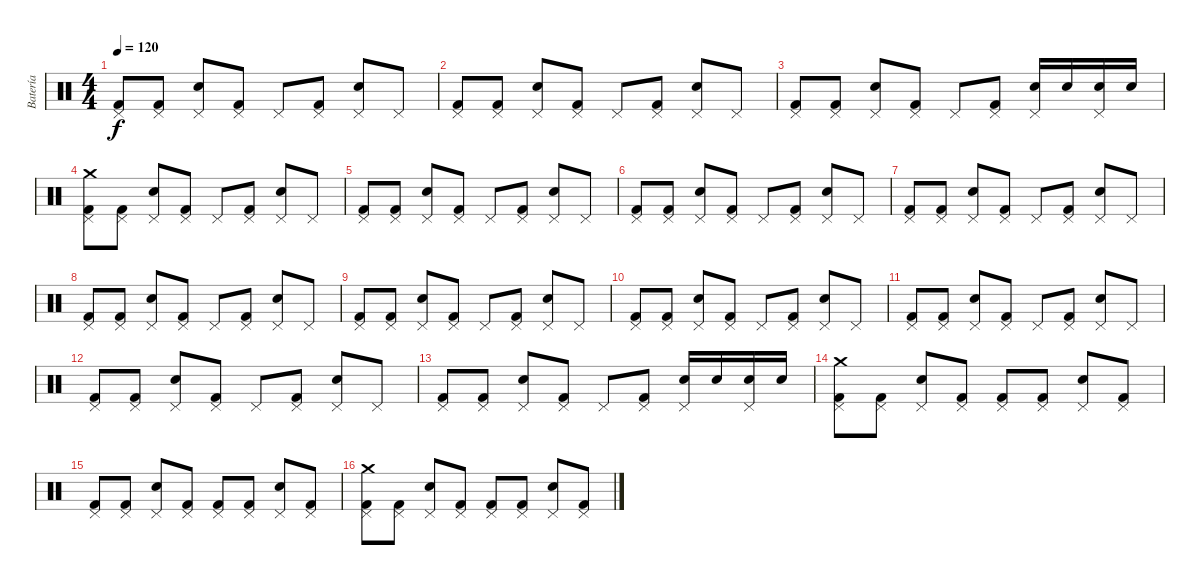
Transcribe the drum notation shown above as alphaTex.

\track ("Batería" "Batería") {instrument percussion}
\staff {score}
\articulation defaults
\ts (4 4)
\tempo 120
\clef neutral
\ks c
("Pedal Hi-Hat (hit)" "Kick (hit) 2").8{dy f} ("Pedal Hi-Hat (hit)" "Kick (hit) 2").8 ("Pedal Hi-Hat (hit)" "Snare (hit) 2").8 ("Pedal Hi-Hat (hit)" "Kick (hit) 2").8 "Pedal Hi-Hat (hit)".8 ("Pedal Hi-Hat (hit)" "Kick (hit) 2").8 ("Pedal Hi-Hat (hit)" "Snare (hit) 2").8 "Pedal Hi-Hat (hit)".8 |
("Pedal Hi-Hat (hit)" "Kick (hit) 2").8 ("Pedal Hi-Hat (hit)" "Kick (hit) 2").8 ("Pedal Hi-Hat (hit)" "Snare (hit) 2").8 ("Pedal Hi-Hat (hit)" "Kick (hit) 2").8 "Pedal Hi-Hat (hit)".8 ("Pedal Hi-Hat (hit)" "Kick (hit) 2").8 ("Pedal Hi-Hat (hit)" "Snare (hit) 2").8 "Pedal Hi-Hat (hit)".8 |
("Pedal Hi-Hat (hit)" "Kick (hit) 2").8 ("Pedal Hi-Hat (hit)" "Kick (hit) 2").8 ("Pedal Hi-Hat (hit)" "Snare (hit) 2").8 ("Pedal Hi-Hat (hit)" "Kick (hit) 2").8 "Pedal Hi-Hat (hit)".8 ("Pedal Hi-Hat (hit)" "Kick (hit) 2").8 ("Snare (hit) 2" "Pedal Hi-Hat (hit)").16 "Snare (hit) 2".16 ("Snare (hit) 2" "Pedal Hi-Hat (hit)").16 "Snare (hit) 2".16 |
("Pedal Hi-Hat (hit)" "Crash medium (hit)" "Kick (hit) 2").8 ("Pedal Hi-Hat (hit)" "Kick (hit) 2").8 ("Pedal Hi-Hat (hit)" "Snare (hit) 2").8 ("Pedal Hi-Hat (hit)" "Kick (hit) 2").8 "Pedal Hi-Hat (hit)".8 ("Pedal Hi-Hat (hit)" "Kick (hit) 2").8 ("Pedal Hi-Hat (hit)" "Snare (hit) 2").8 "Pedal Hi-Hat (hit)".8 |
("Pedal Hi-Hat (hit)" "Kick (hit) 2").8 ("Pedal Hi-Hat (hit)" "Kick (hit) 2").8 ("Pedal Hi-Hat (hit)" "Snare (hit) 2").8 ("Pedal Hi-Hat (hit)" "Kick (hit) 2").8 "Pedal Hi-Hat (hit)".8 ("Pedal Hi-Hat (hit)" "Kick (hit) 2").8 ("Pedal Hi-Hat (hit)" "Snare (hit) 2").8 "Pedal Hi-Hat (hit)".8 |
("Pedal Hi-Hat (hit)" "Kick (hit) 2").8 ("Pedal Hi-Hat (hit)" "Kick (hit) 2").8 ("Pedal Hi-Hat (hit)" "Snare (hit) 2").8 ("Pedal Hi-Hat (hit)" "Kick (hit) 2").8 "Pedal Hi-Hat (hit)".8 ("Pedal Hi-Hat (hit)" "Kick (hit) 2").8 ("Pedal Hi-Hat (hit)" "Snare (hit) 2").8 "Pedal Hi-Hat (hit)".8 |
("Pedal Hi-Hat (hit)" "Kick (hit) 2").8 ("Pedal Hi-Hat (hit)" "Kick (hit) 2").8 ("Pedal Hi-Hat (hit)" "Snare (hit) 2").8 ("Pedal Hi-Hat (hit)" "Kick (hit) 2").8 "Pedal Hi-Hat (hit)".8 ("Pedal Hi-Hat (hit)" "Kick (hit) 2").8 ("Pedal Hi-Hat (hit)" "Snare (hit) 2").8 "Pedal Hi-Hat (hit)".8 |
("Pedal Hi-Hat (hit)" "Kick (hit) 2").8 ("Pedal Hi-Hat (hit)" "Kick (hit) 2").8 ("Pedal Hi-Hat (hit)" "Snare (hit) 2").8 ("Pedal Hi-Hat (hit)" "Kick (hit) 2").8 "Pedal Hi-Hat (hit)".8 ("Pedal Hi-Hat (hit)" "Kick (hit) 2").8 ("Pedal Hi-Hat (hit)" "Snare (hit) 2").8 "Pedal Hi-Hat (hit)".8 |
("Pedal Hi-Hat (hit)" "Kick (hit) 2").8 ("Pedal Hi-Hat (hit)" "Kick (hit) 2").8 ("Pedal Hi-Hat (hit)" "Snare (hit) 2").8 ("Pedal Hi-Hat (hit)" "Kick (hit) 2").8 "Pedal Hi-Hat (hit)".8 ("Pedal Hi-Hat (hit)" "Kick (hit) 2").8 ("Pedal Hi-Hat (hit)" "Snare (hit) 2").8 "Pedal Hi-Hat (hit)".8 |
("Pedal Hi-Hat (hit)" "Kick (hit) 2").8 ("Pedal Hi-Hat (hit)" "Kick (hit) 2").8 ("Pedal Hi-Hat (hit)" "Snare (hit) 2").8 ("Pedal Hi-Hat (hit)" "Kick (hit) 2").8 "Pedal Hi-Hat (hit)".8 ("Pedal Hi-Hat (hit)" "Kick (hit) 2").8 ("Pedal Hi-Hat (hit)" "Snare (hit) 2").8 "Pedal Hi-Hat (hit)".8 |
("Pedal Hi-Hat (hit)" "Kick (hit) 2").8 ("Pedal Hi-Hat (hit)" "Kick (hit) 2").8 ("Pedal Hi-Hat (hit)" "Snare (hit) 2").8 ("Pedal Hi-Hat (hit)" "Kick (hit) 2").8 "Pedal Hi-Hat (hit)".8 ("Pedal Hi-Hat (hit)" "Kick (hit) 2").8 ("Pedal Hi-Hat (hit)" "Snare (hit) 2").8 "Pedal Hi-Hat (hit)".8 |
("Pedal Hi-Hat (hit)" "Kick (hit) 2").8 ("Pedal Hi-Hat (hit)" "Kick (hit) 2").8 ("Pedal Hi-Hat (hit)" "Snare (hit) 2").8 ("Pedal Hi-Hat (hit)" "Kick (hit) 2").8 "Pedal Hi-Hat (hit)".8 ("Pedal Hi-Hat (hit)" "Kick (hit) 2").8 ("Pedal Hi-Hat (hit)" "Snare (hit) 2").8 "Pedal Hi-Hat (hit)".8 |
("Pedal Hi-Hat (hit)" "Kick (hit) 2").8 ("Pedal Hi-Hat (hit)" "Kick (hit) 2").8 ("Pedal Hi-Hat (hit)" "Snare (hit) 2").8 ("Pedal Hi-Hat (hit)" "Kick (hit) 2").8 "Pedal Hi-Hat (hit)".8 ("Pedal Hi-Hat (hit)" "Kick (hit) 2").8 ("Snare (hit) 2" "Pedal Hi-Hat (hit)").16 "Snare (hit) 2".16 ("Snare (hit) 2" "Pedal Hi-Hat (hit)").16 "Snare (hit) 2".16 |
("Crash medium (hit)" "Pedal Hi-Hat (hit)" "Kick (hit) 2").8 ("Pedal Hi-Hat (hit)" "Kick (hit) 2").8 ("Pedal Hi-Hat (hit)" "Snare (hit) 2").8 ("Kick (hit) 2" "Pedal Hi-Hat (hit)").8 ("Kick (hit) 2" "Pedal Hi-Hat (hit)").8 ("Pedal Hi-Hat (hit)" "Kick (hit) 2").8 ("Pedal Hi-Hat (hit)" "Snare (hit) 2").8 ("Kick (hit) 2" "Pedal Hi-Hat (hit)").8 |
("Pedal Hi-Hat (hit)" "Kick (hit) 2").8 ("Pedal Hi-Hat (hit)" "Kick (hit) 2").8 ("Pedal Hi-Hat (hit)" "Snare (hit) 2").8 ("Kick (hit) 2" "Pedal Hi-Hat (hit)").8 ("Kick (hit) 2" "Pedal Hi-Hat (hit)").8 ("Pedal Hi-Hat (hit)" "Kick (hit) 2").8 ("Pedal Hi-Hat (hit)" "Snare (hit) 2").8 ("Kick (hit) 2" "Pedal Hi-Hat (hit)").8 |
("Crash medium (hit)" "Pedal Hi-Hat (hit)" "Kick (hit) 2").8 ("Pedal Hi-Hat (hit)" "Kick (hit) 2").8 ("Pedal Hi-Hat (hit)" "Snare (hit) 2").8 ("Kick (hit) 2" "Pedal Hi-Hat (hit)").8 ("Kick (hit) 2" "Pedal Hi-Hat (hit)").8 ("Pedal Hi-Hat (hit)" "Kick (hit) 2").8 ("Pedal Hi-Hat (hit)" "Snare (hit) 2").8 ("Kick (hit) 2" "Pedal Hi-Hat (hit)").8
